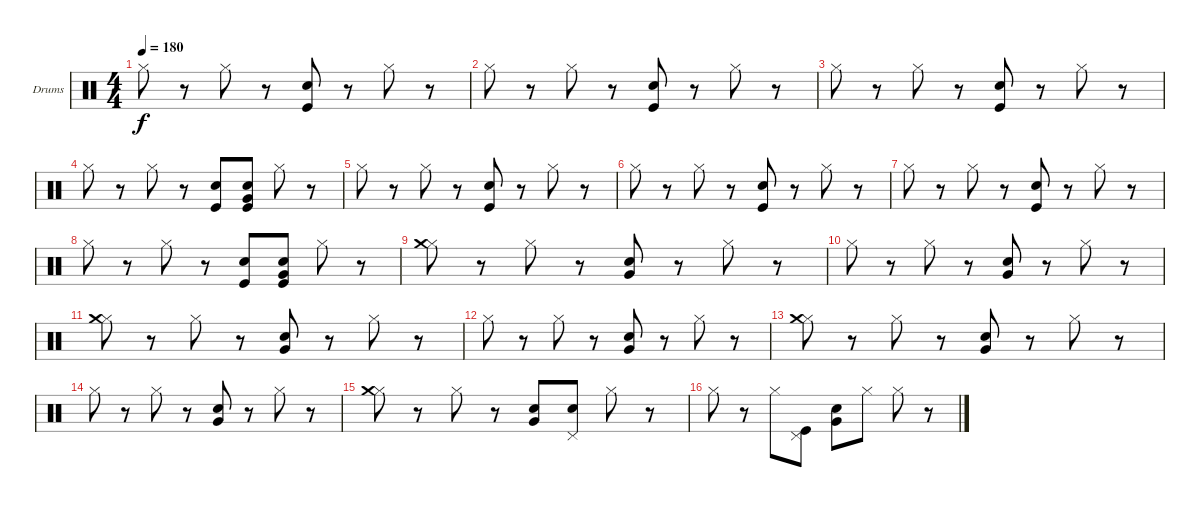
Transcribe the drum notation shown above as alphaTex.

\bracketExtendMode groupsimilarinstruments
\firstSystemTrackNameOrientation horizontal
\otherSystemsTrackNameOrientation horizontal
\track ("Drumkit" "Drums") {instrument percussion}
\staff {score}
\articulation defaults
\ts (4 4)
\tempo 180
\clef neutral
\ks c "Hi-Hat (closed)".8{dy f}
r.8 "Hi-Hat (closed)".8 r.8 ("Snare (hit) 2" "Kick (hit)").8 r.8 "Hi-Hat (closed)".8 r.8 |
"Hi-Hat (closed)".8 r.8 "Hi-Hat (closed)".8 r.8 ("Snare (hit) 2" "Kick (hit)").8 r.8 "Hi-Hat (closed)".8 r.8 |
"Hi-Hat (closed)".8 r.8 "Hi-Hat (closed)".8 r.8 ("Snare (hit) 2" "Kick (hit)").8 r.8 "Hi-Hat (closed)".8 r.8 |
"Hi-Hat (closed)".8 r.8 "Hi-Hat (closed)".8 r.8 ("Snare (hit) 2" "Kick (hit)").8 ("Snare (hit) 2" "Kick (hit)" "Very Low Tom (hit)").8 "Hi-Hat (closed)".8 r.8 |
"Hi-Hat (closed)".8 r.8 "Hi-Hat (closed)".8 r.8 ("Snare (hit) 2" "Kick (hit)").8 r.8 "Hi-Hat (closed)".8 r.8 |
"Hi-Hat (closed)".8 r.8 "Hi-Hat (closed)".8 r.8 ("Snare (hit) 2" "Kick (hit)").8 r.8 "Hi-Hat (closed)".8 r.8 |
"Hi-Hat (closed)".8 r.8 "Hi-Hat (closed)".8 r.8 ("Snare (hit) 2" "Kick (hit)").8 r.8 "Hi-Hat (closed)".8 r.8 |
"Hi-Hat (closed)".8 r.8 "Hi-Hat (closed)".8 r.8 ("Snare (hit) 2" "Kick (hit)").8 ("Snare (hit) 2" "Kick (hit)" "Very Low Tom (hit)").8 "Hi-Hat (closed)".8 r.8 |
("Hi-Hat (closed)" "Crash medium (hit)").8 r.8 "Hi-Hat (closed)".8 r.8 ("Snare (hit) 2" "Very Low Tom (hit)").8 r.8 "Hi-Hat (closed)".8 r.8 |
"Hi-Hat (closed)".8 r.8 "Hi-Hat (closed)".8 r.8 ("Snare (hit) 2" "Very Low Tom (hit)").8 r.8 "Hi-Hat (closed)".8 r.8 |
("Hi-Hat (closed)" "Crash medium (hit)").8 r.8 "Hi-Hat (closed)".8 r.8 ("Snare (hit) 2" "Very Low Tom (hit)").8 r.8 "Hi-Hat (closed)".8 r.8 |
"Hi-Hat (closed)".8 r.8 "Hi-Hat (closed)".8 r.8 ("Snare (hit) 2" "Very Low Tom (hit)").8 r.8 "Hi-Hat (closed)".8 r.8 |
("Hi-Hat (closed)" "Crash medium (hit)").8 r.8 "Hi-Hat (closed)".8 r.8 ("Snare (hit) 2" "Very Low Tom (hit)").8 r.8 "Hi-Hat (closed)".8 r.8 |
"Hi-Hat (closed)".8 r.8 "Hi-Hat (closed)".8 r.8 ("Snare (hit) 2" "Very Low Tom (hit)").8 r.8 "Hi-Hat (closed)".8 r.8 |
("Hi-Hat (closed)" "Crash medium (hit)").8 r.8 "Hi-Hat (closed)".8 r.8 ("Snare (hit) 2" "Very Low Tom (hit)").8 ("Snare (hit) 2" "Pedal Hi-Hat (hit)").8 "Hi-Hat (closed)".8 r.8 |
"Hi-Hat (closed)".8 r.8 "Hi-Hat (closed)".8 ("Pedal Hi-Hat (hit)" "Kick (hit)").8 ("Snare (hit) 2" "Very Low Tom (hit)").8 "Hi-Hat (closed)".8 "Hi-Hat (closed)".8 r.8
